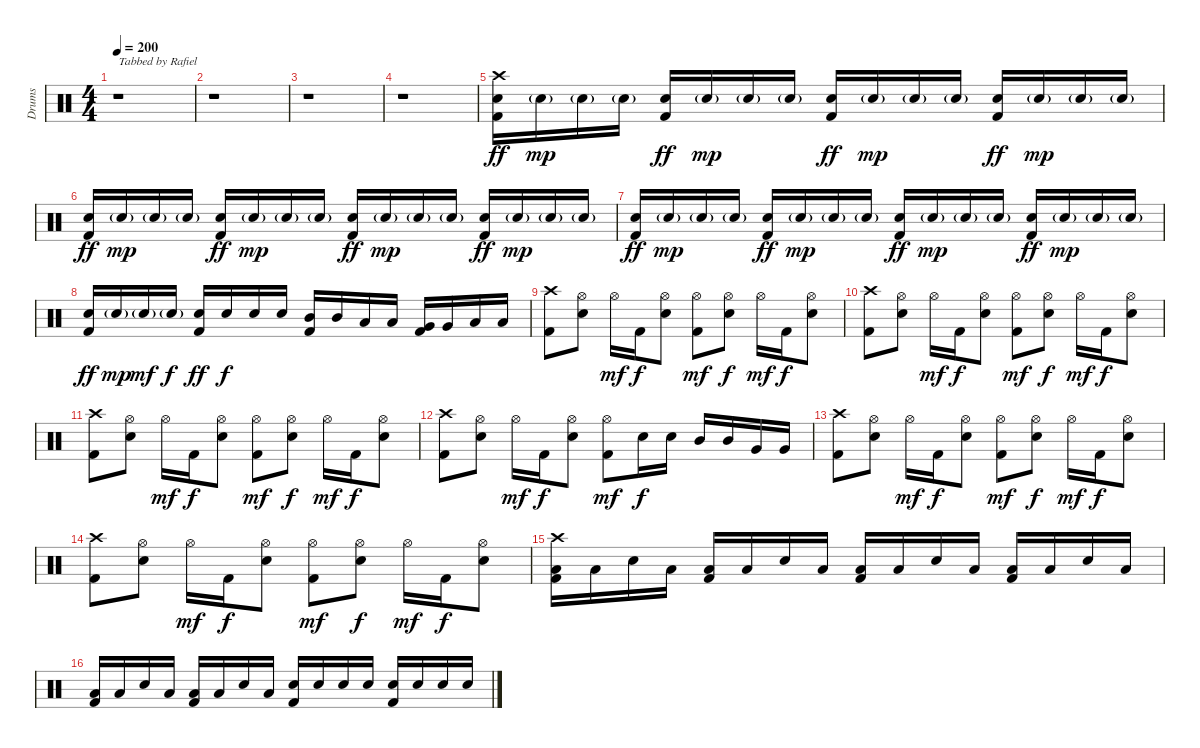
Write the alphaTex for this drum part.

\track ("Drums" "Drums") {instrument percussion}
\staff {score}
\articulation defaults
\ts (4 4)
\tempo 200
\clef neutral
\ks c
r.1{txt "Tabbed by Rafiel" dy ff} |
r.1 |
r.1 |
r.1 |
("Crash high (hit)" "Electric Snare (hit)" "Kick (hit) 2").16 "Electric Snare (hit)"{g}.16{dy mp} "Electric Snare (hit)"{g}.16 "Electric Snare (hit)"{g}.16 ("Electric Snare (hit)" "Kick (hit) 2").16{dy ff} "Electric Snare (hit)"{g}.16{dy mp} "Electric Snare (hit)"{g}.16 "Electric Snare (hit)"{g}.16 ("Electric Snare (hit)" "Kick (hit) 2").16{dy ff} "Electric Snare (hit)"{g}.16{dy mp} "Electric Snare (hit)"{g}.16 "Electric Snare (hit)"{g}.16 ("Electric Snare (hit)" "Kick (hit) 2").16{dy ff} "Electric Snare (hit)"{g}.16{dy mp} "Electric Snare (hit)"{g}.16 "Electric Snare (hit)"{g}.16 |
("Electric Snare (hit)" "Kick (hit) 2").16{dy ff} "Electric Snare (hit)"{g}.16{dy mp} "Electric Snare (hit)"{g}.16 "Electric Snare (hit)"{g}.16 ("Electric Snare (hit)" "Kick (hit) 2").16{dy ff} "Electric Snare (hit)"{g}.16{dy mp} "Electric Snare (hit)"{g}.16 "Electric Snare (hit)"{g}.16 ("Electric Snare (hit)" "Kick (hit) 2").16{dy ff} "Electric Snare (hit)"{g}.16{dy mp} "Electric Snare (hit)"{g}.16 "Electric Snare (hit)"{g}.16 ("Electric Snare (hit)" "Kick (hit) 2").16{dy ff} "Electric Snare (hit)"{g}.16{dy mp} "Electric Snare (hit)"{g}.16 "Electric Snare (hit)"{g}.16 |
("Electric Snare (hit)" "Kick (hit) 2").16{dy ff} "Electric Snare (hit)"{g}.16{dy mp} "Electric Snare (hit)"{g}.16 "Electric Snare (hit)"{g}.16 ("Electric Snare (hit)" "Kick (hit) 2").16{dy ff} "Electric Snare (hit)"{g}.16{dy mp} "Electric Snare (hit)"{g}.16 "Electric Snare (hit)"{g}.16 ("Electric Snare (hit)" "Kick (hit) 2").16{dy ff} "Electric Snare (hit)"{g}.16{dy mp} "Electric Snare (hit)"{g}.16 "Electric Snare (hit)"{g}.16 ("Electric Snare (hit)" "Kick (hit) 2").16{dy ff} "Electric Snare (hit)"{g}.16{dy mp} "Electric Snare (hit)"{g}.16 "Electric Snare (hit)"{g}.16 |
("Electric Snare (hit)" "Kick (hit) 2").16{dy ff} "Electric Snare (hit)"{g}.16{dy mp} "Electric Snare (hit)"{g}.16{dy mf} "Electric Snare (hit)"{g}.16{dy f} ("Electric Snare (hit)" "Kick (hit) 2").16{dy ff} "Electric Snare (hit)".16{dy f} "Electric Snare (hit)".16 "Electric Snare (hit)".16 ("Mid Tom (hit)" "Kick (hit) 2").16 "Mid Tom (hit)".16 "Low Tom (hit)".16 "Low Tom (hit)".16 ("Very Low Tom (hit)" "Kick (hit) 2").16 "Very Low Tom (hit)".16 "Low Floor Tom (hit)".16 "Low Floor Tom (hit)".16 |
("Crash high (hit)" "Kick (hit) 2").8 ("Hi-Hat (open)" "Electric Snare (hit)").8 "Hi-Hat (open)".16{dy mf} "Kick (hit) 2".16{dy f} ("Hi-Hat (open)" "Electric Snare (hit)").8 ("Hi-Hat (open)" "Kick (hit) 2").8{dy mf} ("Hi-Hat (open)" "Electric Snare (hit)").8{dy f} "Hi-Hat (open)".16{dy mf} "Kick (hit) 2".16{dy f} ("Hi-Hat (open)" "Electric Snare (hit)").8 |
("Crash high (hit)" "Kick (hit) 2").8 ("Hi-Hat (open)" "Electric Snare (hit)").8 "Hi-Hat (open)".16{dy mf} "Kick (hit) 2".16{dy f} ("Hi-Hat (open)" "Electric Snare (hit)").8 ("Hi-Hat (open)" "Kick (hit) 2").8{dy mf} ("Hi-Hat (open)" "Electric Snare (hit)").8{dy f} "Hi-Hat (open)".16{dy mf} "Kick (hit) 2".16{dy f} ("Hi-Hat (open)" "Electric Snare (hit)").8 |
("Crash high (hit)" "Kick (hit) 2").8 ("Hi-Hat (open)" "Electric Snare (hit)").8 "Hi-Hat (open)".16{dy mf} "Kick (hit) 2".16{dy f} ("Hi-Hat (open)" "Electric Snare (hit)").8 ("Hi-Hat (open)" "Kick (hit) 2").8{dy mf} ("Hi-Hat (open)" "Electric Snare (hit)").8{dy f} "Hi-Hat (open)".16{dy mf} "Kick (hit) 2".16{dy f} ("Hi-Hat (open)" "Electric Snare (hit)").8 |
("Crash high (hit)" "Kick (hit) 2").8 ("Hi-Hat (open)" "Electric Snare (hit)").8 "Hi-Hat (open)".16{dy mf} "Kick (hit) 2".16{dy f} ("Hi-Hat (open)" "Electric Snare (hit)").8 ("Hi-Hat (open)" "Kick (hit) 2").8{dy mf} "Electric Snare (hit)".16{dy f} "Electric Snare (hit)".16 "Mid Tom (hit)".16 "Mid Tom (hit)".16 "Very Low Tom (hit)".16 "Very Low Tom (hit)".16 |
("Crash high (hit)" "Kick (hit) 2").8 ("Hi-Hat (open)" "Electric Snare (hit)").8 "Hi-Hat (open)".16{dy mf} "Kick (hit) 2".16{dy f} ("Hi-Hat (open)" "Electric Snare (hit)").8 ("Hi-Hat (open)" "Kick (hit) 2").8{dy mf} ("Hi-Hat (open)" "Electric Snare (hit)").8{dy f} "Hi-Hat (open)".16{dy mf} "Kick (hit) 2".16{dy f} ("Hi-Hat (open)" "Electric Snare (hit)").8 |
("Crash high (hit)" "Kick (hit) 2").8 ("Hi-Hat (open)" "Electric Snare (hit)").8 "Hi-Hat (open)".16{dy mf} "Kick (hit) 2".16{dy f} ("Hi-Hat (open)" "Electric Snare (hit)").8 ("Hi-Hat (open)" "Kick (hit) 2").8{dy mf} ("Hi-Hat (open)" "Electric Snare (hit)").8{dy f} "Hi-Hat (open)".16{dy mf} "Kick (hit) 2".16{dy f} ("Hi-Hat (open)" "Electric Snare (hit)").8 |
("Crash high (hit)" "Low Tom (hit)" "Kick (hit) 2").16 "Low Tom (hit)".16 "Electric Snare (hit)".16 "Low Tom (hit)".16 ("Low Tom (hit)" "Kick (hit) 2").16 "Low Tom (hit)".16 "Electric Snare (hit)".16 "Low Tom (hit)".16 ("Low Tom (hit)" "Kick (hit) 2").16 "Low Tom (hit)".16 "Electric Snare (hit)".16 "Low Tom (hit)".16 ("Low Tom (hit)" "Kick (hit) 2").16 "Low Tom (hit)".16 "Electric Snare (hit)".16 "Low Tom (hit)".16 |
("Low Tom (hit)" "Kick (hit) 2").16 "Low Tom (hit)".16 "Electric Snare (hit)".16 "Low Tom (hit)".16 ("Low Tom (hit)" "Kick (hit) 2").16 "Low Tom (hit)".16 "Electric Snare (hit)".16 "Low Tom (hit)".16 ("Electric Snare (hit)" "Kick (hit) 2").16 "Electric Snare (hit)".16 "Electric Snare (hit)".16 "Electric Snare (hit)".16 ("Electric Snare (hit)" "Kick (hit) 2").16 "Electric Snare (hit)".16 "Electric Snare (hit)".16 "Electric Snare (hit)".16
